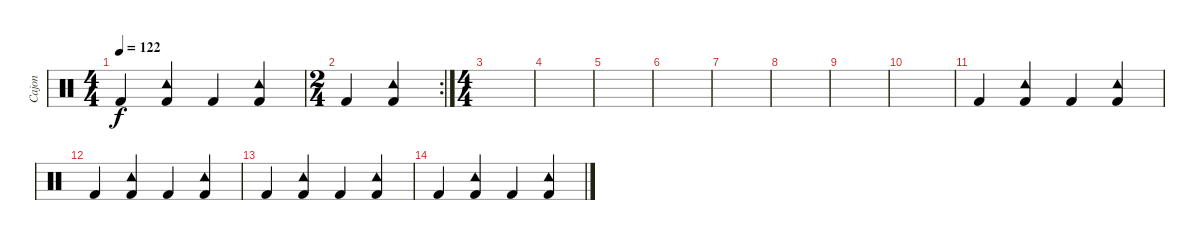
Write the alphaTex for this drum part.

\track ("Cajon" "Cajon") {instrument percussion}
\staff {score}
\articulation defaults
\ts (4 4)
\tempo 122
\clef neutral
\ks c "Kick (hit) 2".4{dy f}
("Tambourine (hit)" "Kick (hit) 2").4 "Kick (hit) 2".4 ("Tambourine (hit)" "Kick (hit) 2").4 |
\rc 2
\ts (2 4)
"Kick (hit) 2".4 ("Tambourine (hit)" "Kick (hit) 2").4 |
\ts (4 4)
|
|
|
|
|
|
|
|
"Kick (hit) 2".4 ("Tambourine (hit)" "Kick (hit) 2").4 "Kick (hit) 2".4 ("Tambourine (hit)" "Kick (hit) 2").4 |
"Kick (hit) 2".4 ("Tambourine (hit)" "Kick (hit) 2").4 "Kick (hit) 2".4 ("Tambourine (hit)" "Kick (hit) 2").4 |
"Kick (hit) 2".4 ("Tambourine (hit)" "Kick (hit) 2").4 "Kick (hit) 2".4 ("Tambourine (hit)" "Kick (hit) 2").4 |
"Kick (hit) 2".4 ("Tambourine (hit)" "Kick (hit) 2").4 "Kick (hit) 2".4 ("Tambourine (hit)" "Kick (hit) 2").4
